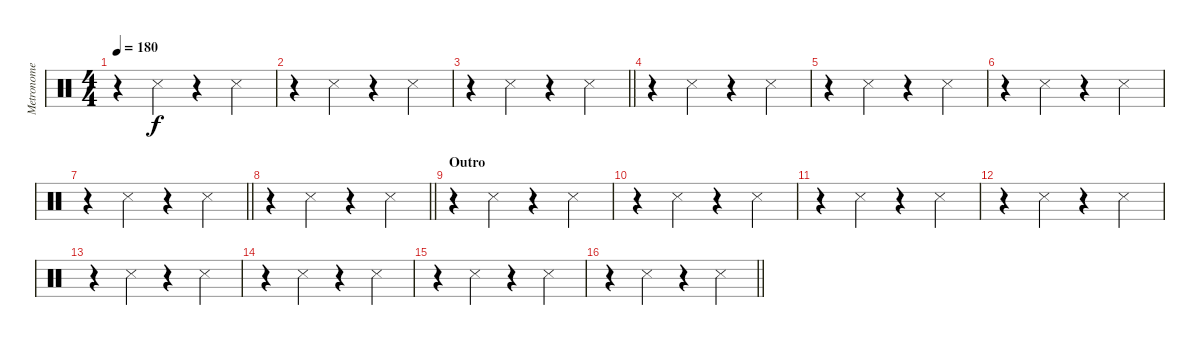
\track ("Metronome" "Metronome") {instrument percussion}
\staff {score}
\articulation defaults
\ts (4 4)
\tempo 180
\clef neutral
\ks c
r.4{dy f} "Metronome (hit)".4 r.4 "Metronome (hit)".4 |
r.4 "Metronome (hit)".4 r.4 "Metronome (hit)".4 |
\barLineRight lightlight
r.4 "Metronome (hit)".4 r.4 "Metronome (hit)".4 |
r.4 "Metronome (hit)".4 r.4 "Metronome (hit)".4 |
r.4 "Metronome (hit)".4 r.4 "Metronome (hit)".4 |
r.4 "Metronome (hit)".4 r.4 "Metronome (hit)".4 |
\barLineRight lightlight
r.4 "Metronome (hit)".4 r.4 "Metronome (hit)".4 |
\barLineRight lightlight
r.4 "Metronome (hit)".4 r.4 "Metronome (hit)".4 |
\section ("" "Outro")
r.4 "Metronome (hit)".4 r.4 "Metronome (hit)".4 |
r.4 "Metronome (hit)".4 r.4 "Metronome (hit)".4 |
r.4 "Metronome (hit)".4 r.4 "Metronome (hit)".4 |
r.4 "Metronome (hit)".4 r.4 "Metronome (hit)".4 |
r.4 "Metronome (hit)".4 r.4 "Metronome (hit)".4 |
r.4 "Metronome (hit)".4 r.4 "Metronome (hit)".4 |
r.4 "Metronome (hit)".4 r.4 "Metronome (hit)".4 |
\barLineRight lightlight
r.4 "Metronome (hit)".4 r.4 "Metronome (hit)".4
